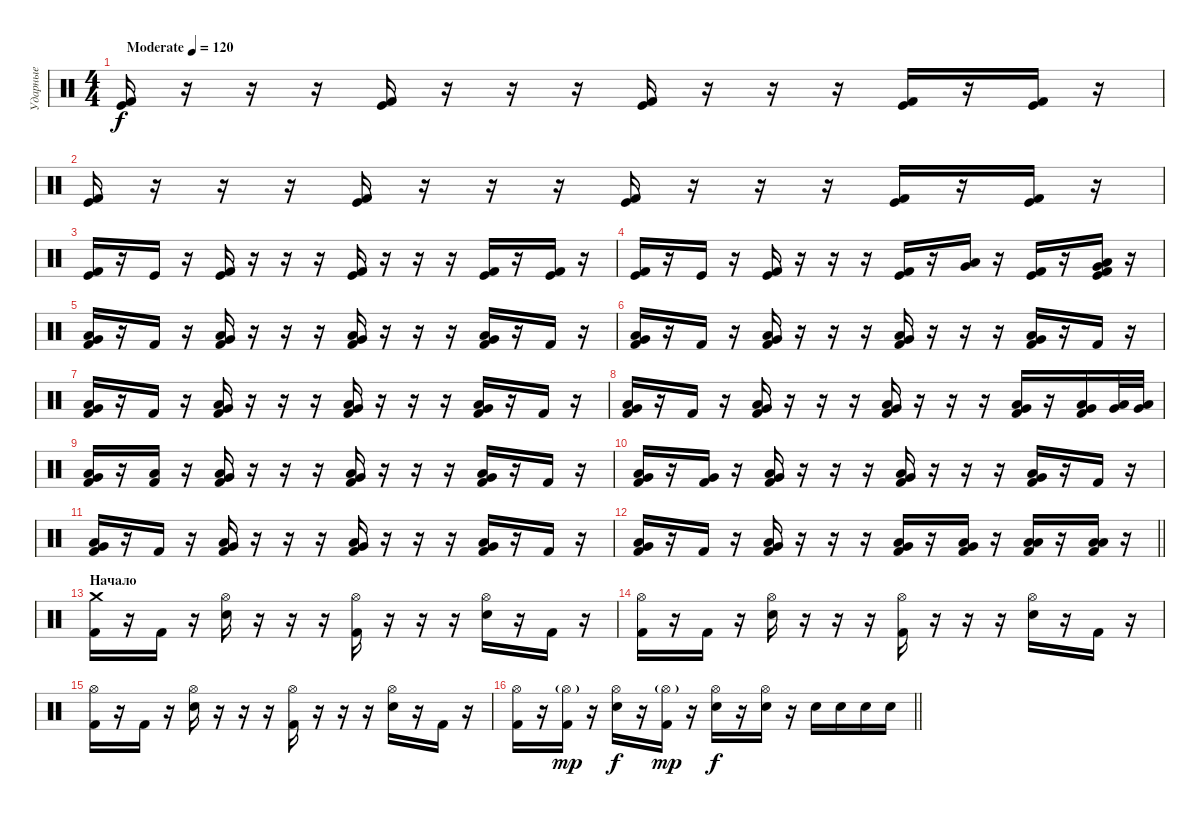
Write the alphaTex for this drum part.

\track ("Ударные" "Ударные") {instrument percussion}
\staff {score}
\articulation defaults
\ts (4 4)
\tempo (120 "Moderate")
\clef neutral
\ks c
("Kick (hit) 2" "Kick (hit)").16{dy f} r.16 r.16 r.16 ("Kick (hit) 2" "Kick (hit)").16 r.16 r.16 r.16 ("Kick (hit) 2" "Kick (hit)").16 r.16 r.16 r.16 ("Kick (hit) 2" "Kick (hit)").16 r.16 ("Kick (hit) 2" "Kick (hit)").16 r.16 |
("Kick (hit) 2" "Kick (hit)").16 r.16 r.16 r.16 ("Kick (hit) 2" "Kick (hit)").16 r.16 r.16 r.16 ("Kick (hit) 2" "Kick (hit)").16 r.16 r.16 r.16 ("Kick (hit) 2" "Kick (hit)").16 r.16 ("Kick (hit) 2" "Kick (hit)").16 r.16 |
("Kick (hit) 2" "Kick (hit)").16 r.16 "Kick (hit)".16 r.16 ("Kick (hit) 2" "Kick (hit)").16 r.16 r.16 r.16 ("Kick (hit) 2" "Kick (hit)").16 r.16 r.16 r.16 ("Kick (hit) 2" "Kick (hit)").16 r.16 ("Kick (hit) 2" "Kick (hit)").16 r.16 |
("Kick (hit) 2" "Kick (hit)").16 r.16 "Kick (hit)".16 r.16 ("Kick (hit) 2" "Kick (hit)").16 r.16 r.16 r.16 ("Kick (hit) 2" "Kick (hit)").16 r.16 ("Very Low Tom (hit)" "Low Floor Tom (hit)").16 r.16 ("Kick (hit) 2" "Kick (hit)").16 r.16 ("Low Floor Tom (hit)" "Very Low Tom (hit)" "Kick (hit) 2" "Kick (hit)").16 r.16 |
("Low Floor Tom (hit)" "Very Low Tom (hit)" "Kick (hit) 2").16 r.16 "Kick (hit) 2".16 r.16 ("Low Floor Tom (hit)" "Very Low Tom (hit)" "Kick (hit) 2").16 r.16 r.16 r.16 ("Low Floor Tom (hit)" "Very Low Tom (hit)" "Kick (hit) 2").16 r.16 r.16 r.16 ("Low Floor Tom (hit)" "Very Low Tom (hit)" "Kick (hit) 2").16 r.16 "Kick (hit) 2".16 r.16 |
("Low Floor Tom (hit)" "Very Low Tom (hit)" "Kick (hit) 2").16 r.16 "Kick (hit) 2".16 r.16 ("Low Floor Tom (hit)" "Very Low Tom (hit)" "Kick (hit) 2").16 r.16 r.16 r.16 ("Low Floor Tom (hit)" "Very Low Tom (hit)" "Kick (hit) 2").16 r.16 r.16 r.16 ("Low Floor Tom (hit)" "Very Low Tom (hit)" "Kick (hit) 2").16 r.16 "Kick (hit) 2".16 r.16 |
("Low Floor Tom (hit)" "Very Low Tom (hit)" "Kick (hit) 2").16 r.16 "Kick (hit) 2".16 r.16 ("Low Floor Tom (hit)" "Very Low Tom (hit)" "Kick (hit) 2").16 r.16 r.16 r.16 ("Low Floor Tom (hit)" "Very Low Tom (hit)" "Kick (hit) 2").16 r.16 r.16 r.16 ("Low Floor Tom (hit)" "Very Low Tom (hit)" "Kick (hit) 2").16 r.16 "Kick (hit) 2".16 r.16 |
("Low Floor Tom (hit)" "Very Low Tom (hit)" "Kick (hit) 2").16 r.16 "Kick (hit) 2".16 r.16 ("Low Floor Tom (hit)" "Very Low Tom (hit)" "Kick (hit) 2").16 r.16 r.16 r.16 ("Low Floor Tom (hit)" "Very Low Tom (hit)" "Kick (hit) 2").16 r.16 r.16 r.16 ("Low Floor Tom (hit)" "Very Low Tom (hit)" "Kick (hit) 2").16 r.16 ("Low Floor Tom (hit)" "Very Low Tom (hit)" "Kick (hit) 2").16 ("Low Floor Tom (hit)" "Very Low Tom (hit)").32 ("Low Floor Tom (hit)" "Very Low Tom (hit)").32 |
("Low Floor Tom (hit)" "Very Low Tom (hit)" "Kick (hit) 2").16 r.16 ("Low Floor Tom (hit)" "Kick (hit) 2").16 r.16 ("Low Floor Tom (hit)" "Very Low Tom (hit)" "Kick (hit) 2").16 r.16 r.16 r.16 ("Low Floor Tom (hit)" "Very Low Tom (hit)" "Kick (hit) 2").16 r.16 r.16 r.16 ("Low Floor Tom (hit)" "Very Low Tom (hit)" "Kick (hit) 2").16 r.16 "Kick (hit) 2".16 r.16 |
("Low Floor Tom (hit)" "Very Low Tom (hit)" "Kick (hit) 2").16 r.16 ("Very Low Tom (hit)" "Kick (hit) 2").16 r.16 ("Low Floor Tom (hit)" "Very Low Tom (hit)" "Kick (hit) 2").16 r.16 r.16 r.16 ("Low Floor Tom (hit)" "Very Low Tom (hit)" "Kick (hit) 2").16 r.16 r.16 r.16 ("Low Floor Tom (hit)" "Very Low Tom (hit)" "Kick (hit) 2").16 r.16 "Kick (hit) 2".16 r.16 |
("Low Floor Tom (hit)" "Very Low Tom (hit)" "Kick (hit) 2").16 r.16 "Kick (hit) 2".16 r.16 ("Low Floor Tom (hit)" "Very Low Tom (hit)" "Kick (hit) 2").16 r.16 r.16 r.16 ("Low Floor Tom (hit)" "Very Low Tom (hit)" "Kick (hit) 2").16 r.16 r.16 r.16 ("Low Floor Tom (hit)" "Very Low Tom (hit)" "Kick (hit) 2").16 r.16 "Kick (hit) 2".16 r.16 |
\barLineRight lightlight
("Low Floor Tom (hit)" "Very Low Tom (hit)" "Kick (hit) 2").16 r.16 "Kick (hit) 2".16 r.16 ("Low Floor Tom (hit)" "Very Low Tom (hit)" "Kick (hit) 2").16 r.16 r.16 r.16 ("Low Floor Tom (hit)" "Very Low Tom (hit)" "Kick (hit) 2").16 r.16 ("Low Floor Tom (hit)" "Very Low Tom (hit)" "Kick (hit) 2").16 r.16 ("Low Tom (hit)" "Low Tom (hit)" "Kick (hit) 2").16 r.16 ("Low Tom (hit)" "Low Tom (hit)" "Kick (hit) 2").16 r.16 |
\section ("" "Начало")
("Crash medium (hit)" "Kick (hit) 2").16 r.16 "Kick (hit) 2".16 r.16 ("Hi-Hat (open)" "Snare (hit) 2").16 r.16 r.16 r.16 ("Hi-Hat (open)" "Kick (hit) 2").16 r.16 r.16 r.16 ("Hi-Hat (open)" "Snare (hit) 2").16 r.16 "Kick (hit) 2".16 r.16 |
("Hi-Hat (open)" "Kick (hit) 2").16 r.16 "Kick (hit) 2".16 r.16 ("Hi-Hat (open)" "Snare (hit) 2").16 r.16 r.16 r.16 ("Hi-Hat (open)" "Kick (hit) 2").16 r.16 r.16 r.16 ("Hi-Hat (open)" "Snare (hit) 2").16 r.16 "Kick (hit) 2".16 r.16 |
("Hi-Hat (open)" "Kick (hit) 2").16 r.16 "Kick (hit) 2".16 r.16 ("Hi-Hat (open)" "Snare (hit) 2").16 r.16 r.16 r.16 ("Hi-Hat (open)" "Kick (hit) 2").16 r.16 r.16 r.16 ("Hi-Hat (open)" "Snare (hit) 2").16 r.16 "Kick (hit) 2".16 r.16 |
\barLineRight lightlight
("Hi-Hat (open)" "Kick (hit) 2").16 r.16 ("Hi-Hat (open)"{g} "Kick (hit) 2").16{dy mp} r.16 ("Hi-Hat (open)" "Snare (hit) 2").16{dy f} r.16 ("Hi-Hat (open)"{g} "Kick (hit) 2").16{dy mp} r.16 ("Hi-Hat (open)" "Snare (hit) 2").16{dy f} r.16 ("Hi-Hat (open)" "Snare (hit) 2").16 r.16 "Snare (hit) 2".16 "Snare (hit) 2".16 "Snare (hit) 2".16 "Snare (hit) 2".16
